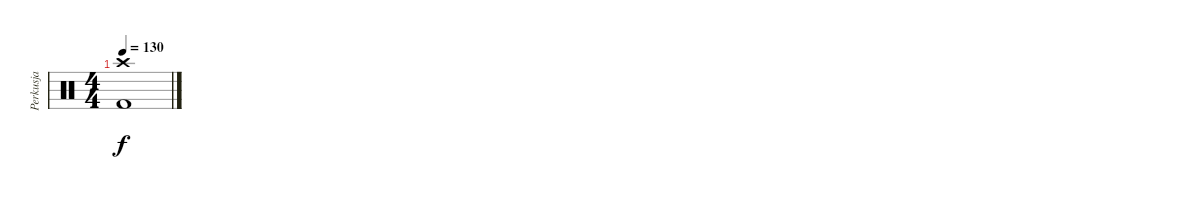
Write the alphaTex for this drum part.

\track ("Perkusja" "Perkusja") {instrument percussion}
\staff {score}
\articulation defaults
\ts (4 4)
\tempo 130
\clef neutral
\ks c
("Crash high (hit)" "Kick (hit) 2").1{dy f}
